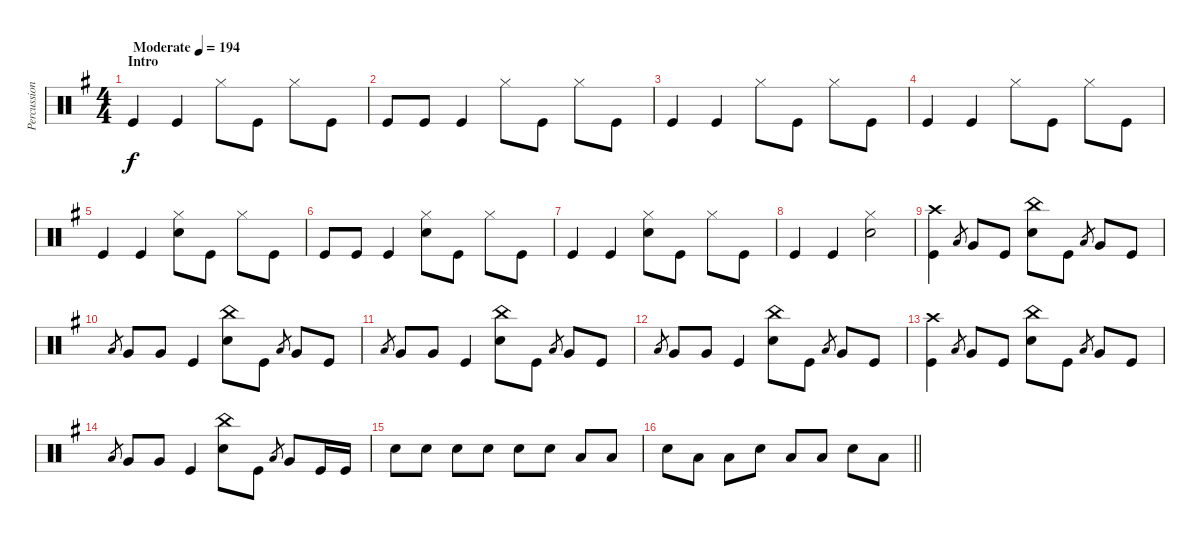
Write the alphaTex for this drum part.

\track ("Percussion" "Percussion") {instrument percussion}
\staff {score}
\articulation defaults
\ts (4 4)
\section ("" "Intro")
\tempo (194 "Moderate")
\clef neutral
\ks g "Kick (hit)".4{dy f} "Kick (hit)".4 "Hi-Hat (closed)".8 "Kick (hit)".8 "Hi-Hat (closed)".8 "Kick (hit)".8
|
"Kick (hit)".8 "Kick (hit)".8 "Kick (hit)".4 "Hi-Hat (closed)".8 "Kick (hit)".8 "Hi-Hat (closed)".8 "Kick (hit)".8 |
"Kick (hit)".4 "Kick (hit)".4 "Hi-Hat (closed)".8 "Kick (hit)".8 "Hi-Hat (closed)".8 "Kick (hit)".8 |
"Kick (hit)".4 "Kick (hit)".4 "Hi-Hat (closed)".8 "Kick (hit)".8 "Hi-Hat (closed)".8 "Kick (hit)".8 |
"Kick (hit)".4 "Kick (hit)".4 ("Hi-Hat (closed)" "Electric Snare (hit)").8 "Kick (hit)".8 "Hi-Hat (closed)".8 "Kick (hit)".8 |
"Kick (hit)".8 "Kick (hit)".8 "Kick (hit)".4 ("Hi-Hat (closed)" "Electric Snare (hit)").8 "Kick (hit)".8 "Hi-Hat (closed)".8 "Kick (hit)".8 |
"Kick (hit)".4 "Kick (hit)".4 ("Hi-Hat (closed)" "Electric Snare (hit)").8 "Kick (hit)".8 "Hi-Hat (closed)".8 "Kick (hit)".8 |
"Kick (hit)".4 "Kick (hit)".4 ("Hi-Hat (closed)" "Electric Snare (hit)").2 |
("Crash high (hit)" "Kick (hit)").4 "Low Tom (hit)".8{gr} "Very Low Tom (hit)".8 "Kick (hit)".8 ("China (hit)" "Electric Snare (hit)").8 "Kick (hit)".8 "Low Tom (hit)".8{gr} "Very Low Tom (hit)".8 "Kick (hit)".8 |
"Low Tom (hit)".8{gr} "Very Low Tom (hit)".8 "Very Low Tom (hit)".8 "Kick (hit)".4 ("China (hit)" "Electric Snare (hit)").8 "Kick (hit)".8 "Low Tom (hit)".8{gr} "Very Low Tom (hit)".8 "Kick (hit)".8 |
"Low Tom (hit)".8{gr} "Very Low Tom (hit)".8 "Very Low Tom (hit)".8 "Kick (hit)".4 ("China (hit)" "Electric Snare (hit)").8 "Kick (hit)".8 "Low Tom (hit)".8{gr} "Very Low Tom (hit)".8 "Kick (hit)".8 |
"Low Tom (hit)".8{gr} "Very Low Tom (hit)".8 "Very Low Tom (hit)".8 "Kick (hit)".4 ("China (hit)" "Electric Snare (hit)").8 "Kick (hit)".8 "Low Tom (hit)".8{gr} "Very Low Tom (hit)".8 "Kick (hit)".8 |
("Crash high (hit)" "Kick (hit)").4 "Low Tom (hit)".8{gr} "Very Low Tom (hit)".8 "Kick (hit)".8 ("China (hit)" "Electric Snare (hit)").8 "Kick (hit)".8 "Low Tom (hit)".8{gr} "Very Low Tom (hit)".8 "Kick (hit)".8 |
"Low Tom (hit)".8{gr} "Very Low Tom (hit)".8 "Very Low Tom (hit)".8 "Kick (hit)".4 ("China (hit)" "Electric Snare (hit)").8 "Kick (hit)".8 "Low Tom (hit)".8{gr} "Very Low Tom (hit)".8 "Kick (hit)".16 "Kick (hit)".16 |
"Electric Snare (hit)".8 "Electric Snare (hit)".8 "Electric Snare (hit)".8 "Electric Snare (hit)".8 "Electric Snare (hit)".8 "Electric Snare (hit)".8 "Low Tom (hit)".8 "Low Tom (hit)".8 |
\barLineRight lightlight "Electric Snare (hit)".8 "Low Tom (hit)".8 "Low Tom (hit)".8 "Electric Snare (hit)".8 "Low Tom (hit)".8 "Low Tom (hit)".8 "Electric Snare (hit)".8 "Low Tom (hit)".8
